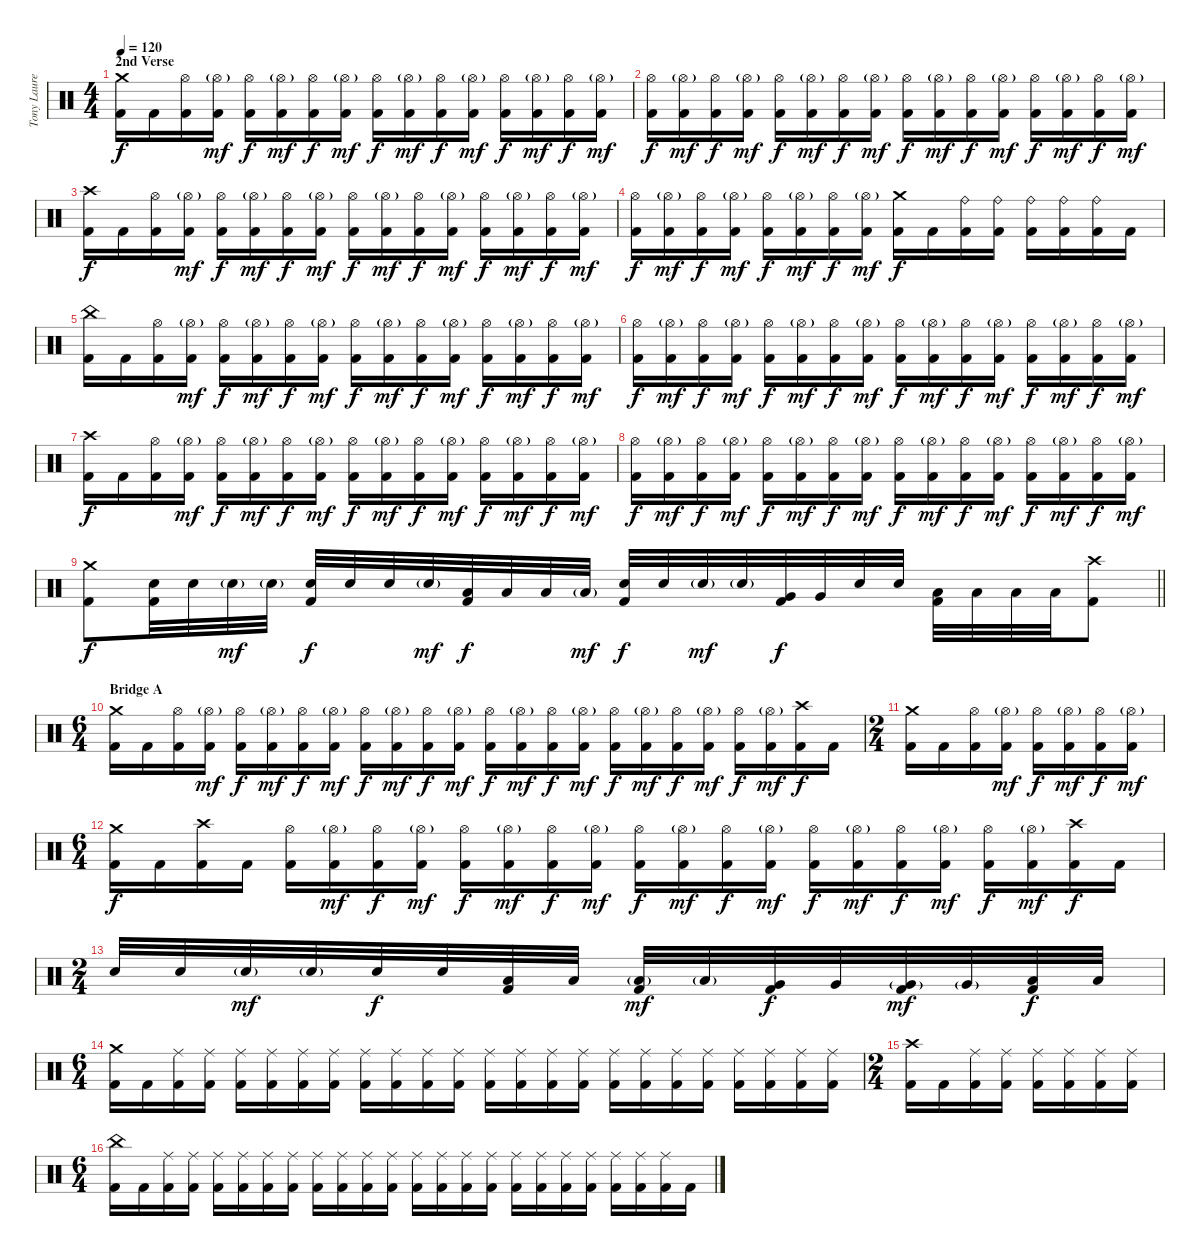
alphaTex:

\track ("Tony Laureano" "Tony Laure") {instrument percussion}
\staff {score}
\articulation defaults
\ts (4 4)
\section ("" "2nd Verse")
\tempo 120
\clef neutral
\ks c
("Crash medium (hit)" "Kick (hit) 2").16{dy f} "Kick (hit) 2".16 ("Hi-Hat (open)" "Kick (hit) 2").16 ("Hi-Hat (open)"{g} "Kick (hit) 2").16{dy mf} ("Hi-Hat (open)" "Kick (hit) 2").16{dy f} ("Hi-Hat (open)"{g} "Kick (hit) 2").16{dy mf} ("Hi-Hat (open)" "Kick (hit) 2").16{dy f} ("Hi-Hat (open)"{g} "Kick (hit) 2").16{dy mf} ("Hi-Hat (open)" "Kick (hit) 2").16{dy f} ("Hi-Hat (open)"{g} "Kick (hit) 2").16{dy mf} ("Hi-Hat (open)" "Kick (hit) 2").16{dy f} ("Hi-Hat (open)"{g} "Kick (hit) 2").16{dy mf} ("Hi-Hat (open)" "Kick (hit) 2").16{dy f} ("Hi-Hat (open)"{g} "Kick (hit) 2").16{dy mf} ("Hi-Hat (open)" "Kick (hit) 2").16{dy f} ("Hi-Hat (open)"{g} "Kick (hit) 2").16{dy mf} |
("Hi-Hat (open)" "Kick (hit) 2").16{dy f} ("Hi-Hat (open)"{g} "Kick (hit) 2").16{dy mf} ("Hi-Hat (open)" "Kick (hit) 2").16{dy f} ("Hi-Hat (open)"{g} "Kick (hit) 2").16{dy mf} ("Hi-Hat (open)" "Kick (hit) 2").16{dy f} ("Hi-Hat (open)"{g} "Kick (hit) 2").16{dy mf} ("Hi-Hat (open)" "Kick (hit) 2").16{dy f} ("Hi-Hat (open)"{g} "Kick (hit) 2").16{dy mf} ("Hi-Hat (open)" "Kick (hit) 2").16{dy f} ("Hi-Hat (open)"{g} "Kick (hit) 2").16{dy mf} ("Hi-Hat (open)" "Kick (hit) 2").16{dy f} ("Hi-Hat (open)"{g} "Kick (hit) 2").16{dy mf} ("Hi-Hat (open)" "Kick (hit) 2").16{dy f} ("Hi-Hat (open)"{g} "Kick (hit) 2").16{dy mf} ("Hi-Hat (open)" "Kick (hit) 2").16{dy f} ("Hi-Hat (open)"{g} "Kick (hit) 2").16{dy mf} |
("Crash high (hit)" "Kick (hit) 2").16{dy f} "Kick (hit) 2".16 ("Hi-Hat (open)" "Kick (hit) 2").16 ("Hi-Hat (open)"{g} "Kick (hit) 2").16{dy mf} ("Hi-Hat (open)" "Kick (hit) 2").16{dy f} ("Hi-Hat (open)"{g} "Kick (hit) 2").16{dy mf} ("Hi-Hat (open)" "Kick (hit) 2").16{dy f} ("Hi-Hat (open)"{g} "Kick (hit) 2").16{dy mf} ("Hi-Hat (open)" "Kick (hit) 2").16{dy f} ("Hi-Hat (open)"{g} "Kick (hit) 2").16{dy mf} ("Hi-Hat (open)" "Kick (hit) 2").16{dy f} ("Hi-Hat (open)"{g} "Kick (hit) 2").16{dy mf} ("Hi-Hat (open)" "Kick (hit) 2").16{dy f} ("Hi-Hat (open)"{g} "Kick (hit) 2").16{dy mf} ("Hi-Hat (open)" "Kick (hit) 2").16{dy f} ("Hi-Hat (open)"{g} "Kick (hit) 2").16{dy mf} |
("Hi-Hat (open)" "Kick (hit) 2").16{dy f} ("Hi-Hat (open)"{g} "Kick (hit) 2").16{dy mf} ("Hi-Hat (open)" "Kick (hit) 2").16{dy f} ("Hi-Hat (open)"{g} "Kick (hit) 2").16{dy mf} ("Hi-Hat (open)" "Kick (hit) 2").16{dy f} ("Hi-Hat (open)"{g} "Kick (hit) 2").16{dy mf} ("Hi-Hat (open)" "Kick (hit) 2").16{dy f} ("Hi-Hat (open)"{g} "Kick (hit) 2").16{dy mf} ("Crash medium (hit)" "Kick (hit) 2").16{dy f} "Kick (hit) 2".16 ("Ride (bell)" "Kick (hit) 2").16 ("Ride (bell)" "Kick (hit) 2").16 ("Ride (bell)" "Kick (hit) 2").16 ("Ride (bell)" "Kick (hit) 2").16 ("Ride (bell)" "Kick (hit) 2").16 "Kick (hit) 2".16 |
("China (hit)" "Kick (hit) 2").16 "Kick (hit) 2".16 ("Hi-Hat (open)" "Kick (hit) 2").16 ("Hi-Hat (open)"{g} "Kick (hit) 2").16{dy mf} ("Hi-Hat (open)" "Kick (hit) 2").16{dy f} ("Hi-Hat (open)"{g} "Kick (hit) 2").16{dy mf} ("Hi-Hat (open)" "Kick (hit) 2").16{dy f} ("Hi-Hat (open)"{g} "Kick (hit) 2").16{dy mf} ("Hi-Hat (open)" "Kick (hit) 2").16{dy f} ("Hi-Hat (open)"{g} "Kick (hit) 2").16{dy mf} ("Hi-Hat (open)" "Kick (hit) 2").16{dy f} ("Hi-Hat (open)"{g} "Kick (hit) 2").16{dy mf} ("Hi-Hat (open)" "Kick (hit) 2").16{dy f} ("Hi-Hat (open)"{g} "Kick (hit) 2").16{dy mf} ("Hi-Hat (open)" "Kick (hit) 2").16{dy f} ("Hi-Hat (open)"{g} "Kick (hit) 2").16{dy mf} |
("Hi-Hat (open)" "Kick (hit) 2").16{dy f} ("Hi-Hat (open)"{g} "Kick (hit) 2").16{dy mf} ("Hi-Hat (open)" "Kick (hit) 2").16{dy f} ("Hi-Hat (open)"{g} "Kick (hit) 2").16{dy mf} ("Hi-Hat (open)" "Kick (hit) 2").16{dy f} ("Hi-Hat (open)"{g} "Kick (hit) 2").16{dy mf} ("Hi-Hat (open)" "Kick (hit) 2").16{dy f} ("Hi-Hat (open)"{g} "Kick (hit) 2").16{dy mf} ("Hi-Hat (open)" "Kick (hit) 2").16{dy f} ("Hi-Hat (open)"{g} "Kick (hit) 2").16{dy mf} ("Hi-Hat (open)" "Kick (hit) 2").16{dy f} ("Hi-Hat (open)"{g} "Kick (hit) 2").16{dy mf} ("Hi-Hat (open)" "Kick (hit) 2").16{dy f} ("Hi-Hat (open)"{g} "Kick (hit) 2").16{dy mf} ("Hi-Hat (open)" "Kick (hit) 2").16{dy f} ("Hi-Hat (open)"{g} "Kick (hit) 2").16{dy mf} |
("Crash high (hit)" "Kick (hit) 2").16{dy f} "Kick (hit) 2".16 ("Hi-Hat (open)" "Kick (hit) 2").16 ("Hi-Hat (open)"{g} "Kick (hit) 2").16{dy mf} ("Hi-Hat (open)" "Kick (hit) 2").16{dy f} ("Hi-Hat (open)"{g} "Kick (hit) 2").16{dy mf} ("Hi-Hat (open)" "Kick (hit) 2").16{dy f} ("Hi-Hat (open)"{g} "Kick (hit) 2").16{dy mf} ("Hi-Hat (open)" "Kick (hit) 2").16{dy f} ("Hi-Hat (open)"{g} "Kick (hit) 2").16{dy mf} ("Hi-Hat (open)" "Kick (hit) 2").16{dy f} ("Hi-Hat (open)"{g} "Kick (hit) 2").16{dy mf} ("Hi-Hat (open)" "Kick (hit) 2").16{dy f} ("Hi-Hat (open)"{g} "Kick (hit) 2").16{dy mf} ("Hi-Hat (open)" "Kick (hit) 2").16{dy f} ("Hi-Hat (open)"{g} "Kick (hit) 2").16{dy mf} |
("Hi-Hat (open)" "Kick (hit) 2").16{dy f} ("Hi-Hat (open)"{g} "Kick (hit) 2").16{dy mf} ("Hi-Hat (open)" "Kick (hit) 2").16{dy f} ("Hi-Hat (open)"{g} "Kick (hit) 2").16{dy mf} ("Hi-Hat (open)" "Kick (hit) 2").16{dy f} ("Hi-Hat (open)"{g} "Kick (hit) 2").16{dy mf} ("Hi-Hat (open)" "Kick (hit) 2").16{dy f} ("Hi-Hat (open)"{g} "Kick (hit) 2").16{dy mf} ("Hi-Hat (open)" "Kick (hit) 2").16{dy f} ("Hi-Hat (open)"{g} "Kick (hit) 2").16{dy mf} ("Hi-Hat (open)" "Kick (hit) 2").16{dy f} ("Hi-Hat (open)"{g} "Kick (hit) 2").16{dy mf} ("Hi-Hat (open)" "Kick (hit) 2").16{dy f} ("Hi-Hat (open)"{g} "Kick (hit) 2").16{dy mf} ("Hi-Hat (open)" "Kick (hit) 2").16{dy f} ("Hi-Hat (open)"{g} "Kick (hit) 2").16{dy mf} |
\barLineRight lightlight
("Crash medium (hit)" "Kick (hit) 2").8{dy f} ("Electric Snare (hit)" "Kick (hit) 2").32 "Electric Snare (hit)".32 "Electric Snare (hit)"{g}.32{dy mf} "Electric Snare (hit)"{g}.32 ("Electric Snare (hit)" "Kick (hit) 2").32{dy f} "Electric Snare (hit)".32 "Electric Snare (hit)".32 "Electric Snare (hit)"{g}.32{dy mf} ("Low Tom (hit)" "Kick (hit) 2").32{dy f} "Low Tom (hit)".32 "Low Tom (hit)".32 "Low Tom (hit)"{g}.32{dy mf} ("Electric Snare (hit)" "Kick (hit) 2").32{dy f} "Electric Snare (hit)".32 "Electric Snare (hit)"{g}.32{dy mf} "Electric Snare (hit)"{g}.32 ("Very Low Tom (hit)" "Kick (hit) 2").32{dy f} "Very Low Tom (hit)".32 "Electric Snare (hit)".32 "Electric Snare (hit)".32 ("Low Floor Tom (hit)" "Kick (hit) 2").32 "Low Floor Tom (hit)".32 "Low Floor Tom (hit)".32 "Low Floor Tom (hit)".32 ("Crash high (hit)" "Kick (hit) 2").8 |
\ts (6 4)
\section ("" "Bridge A")
("Crash medium (hit)" "Kick (hit) 2").16 "Kick (hit) 2".16 ("Hi-Hat (open)" "Kick (hit) 2").16 ("Hi-Hat (open)"{g} "Kick (hit) 2").16{dy mf} ("Hi-Hat (open)" "Kick (hit) 2").16{dy f} ("Hi-Hat (open)"{g} "Kick (hit) 2").16{dy mf} ("Hi-Hat (open)" "Kick (hit) 2").16{dy f} ("Hi-Hat (open)"{g} "Kick (hit) 2").16{dy mf} ("Hi-Hat (open)" "Kick (hit) 2").16{dy f} ("Hi-Hat (open)"{g} "Kick (hit) 2").16{dy mf} ("Hi-Hat (open)" "Kick (hit) 2").16{dy f} ("Hi-Hat (open)"{g} "Kick (hit) 2").16{dy mf} ("Hi-Hat (open)" "Kick (hit) 2").16{dy f} ("Hi-Hat (open)"{g} "Kick (hit) 2").16{dy mf} ("Hi-Hat (open)" "Kick (hit) 2").16{dy f} ("Hi-Hat (open)"{g} "Kick (hit) 2").16{dy mf} ("Hi-Hat (open)" "Kick (hit) 2").16{dy f} ("Hi-Hat (open)"{g} "Kick (hit) 2").16{dy mf} ("Hi-Hat (open)" "Kick (hit) 2").16{dy f} ("Hi-Hat (open)"{g} "Kick (hit) 2").16{dy mf} ("Hi-Hat (open)" "Kick (hit) 2").16{dy f} ("Hi-Hat (open)"{g} "Kick (hit) 2").16{dy mf} ("Crash high (hit)" "Kick (hit) 2").16{dy f} "Kick (hit) 2".16 |
\ts (2 4)
("Crash medium (hit)" "Kick (hit) 2").16 "Kick (hit) 2".16 ("Hi-Hat (open)" "Kick (hit) 2").16 ("Hi-Hat (open)"{g} "Kick (hit) 2").16{dy mf} ("Hi-Hat (open)" "Kick (hit) 2").16{dy f} ("Hi-Hat (open)"{g} "Kick (hit) 2").16{dy mf} ("Hi-Hat (open)" "Kick (hit) 2").16{dy f} ("Hi-Hat (open)"{g} "Kick (hit) 2").16{dy mf} |
\ts (6 4)
("Crash medium (hit)" "Kick (hit) 2").16{dy f} "Kick (hit) 2".16 ("Crash high (hit)" "Kick (hit) 2").16 "Kick (hit) 2".16 ("Hi-Hat (open)" "Kick (hit) 2").16 ("Hi-Hat (open)"{g} "Kick (hit) 2").16{dy mf} ("Hi-Hat (open)" "Kick (hit) 2").16{dy f} ("Hi-Hat (open)"{g} "Kick (hit) 2").16{dy mf} ("Hi-Hat (open)" "Kick (hit) 2").16{dy f} ("Hi-Hat (open)"{g} "Kick (hit) 2").16{dy mf} ("Hi-Hat (open)" "Kick (hit) 2").16{dy f} ("Hi-Hat (open)"{g} "Kick (hit) 2").16{dy mf} ("Hi-Hat (open)" "Kick (hit) 2").16{dy f} ("Hi-Hat (open)"{g} "Kick (hit) 2").16{dy mf} ("Hi-Hat (open)" "Kick (hit) 2").16{dy f} ("Hi-Hat (open)"{g} "Kick (hit) 2").16{dy mf} ("Hi-Hat (open)" "Kick (hit) 2").16{dy f} ("Hi-Hat (open)"{g} "Kick (hit) 2").16{dy mf} ("Hi-Hat (open)" "Kick (hit) 2").16{dy f} ("Hi-Hat (open)"{g} "Kick (hit) 2").16{dy mf} ("Hi-Hat (open)" "Kick (hit) 2").16{dy f} ("Hi-Hat (open)"{g} "Kick (hit) 2").16{dy mf} ("Crash high (hit)" "Kick (hit) 2").16{dy f} "Kick (hit) 2".16 |
\ts (2 4)
"Electric Snare (hit)".32 "Electric Snare (hit)".32 "Electric Snare (hit)"{g}.32{dy mf} "Electric Snare (hit)"{g}.32 "Electric Snare (hit)".32{dy f} "Electric Snare (hit)".32 ("Low Tom (hit)" "Kick (hit) 2").32 "Low Tom (hit)".32 ("Low Tom (hit)"{g} "Kick (hit) 2").32{dy mf} "Low Tom (hit)"{g}.32 ("Very Low Tom (hit)" "Kick (hit) 2").32{dy f} "Very Low Tom (hit)".32 ("Very Low Tom (hit)"{g} "Kick (hit) 2").32{dy mf} "Very Low Tom (hit)"{g}.32 ("Low Floor Tom (hit)" "Kick (hit) 2").32{dy f} "Low Floor Tom (hit)".32 |
\ts (6 4)
("Crash medium (hit)" "Kick (hit) 2").16 "Kick (hit) 2".16 ("Ride (middle)" "Kick (hit) 2").16 ("Ride (middle)" "Kick (hit) 2").16 ("Ride (middle)" "Kick (hit) 2").16 ("Ride (middle)" "Kick (hit) 2").16 ("Ride (middle)" "Kick (hit) 2").16 ("Ride (middle)" "Kick (hit) 2").16 ("Ride (middle)" "Kick (hit) 2").16 ("Ride (middle)" "Kick (hit) 2").16 ("Ride (middle)" "Kick (hit) 2").16 ("Ride (middle)" "Kick (hit) 2").16 ("Ride (middle)" "Kick (hit) 2").16 ("Ride (middle)" "Kick (hit) 2").16 ("Ride (middle)" "Kick (hit) 2").16 ("Ride (middle)" "Kick (hit) 2").16 ("Ride (middle)" "Kick (hit) 2").16 ("Ride (middle)" "Kick (hit) 2").16 ("Ride (middle)" "Kick (hit) 2").16 ("Ride (middle)" "Kick (hit) 2").16 ("Ride (middle)" "Kick (hit) 2").16 ("Ride (middle)" "Kick (hit) 2").16 ("Ride (middle)" "Kick (hit) 2").16 ("Ride (middle)" "Kick (hit) 2").16 |
\ts (2 4)
("Crash high (hit)" "Kick (hit) 2").16 "Kick (hit) 2".16 ("Ride (middle)" "Kick (hit) 2").16 ("Ride (middle)" "Kick (hit) 2").16 ("Ride (middle)" "Kick (hit) 2").16 ("Ride (middle)" "Kick (hit) 2").16 ("Ride (middle)" "Kick (hit) 2").16 ("Ride (middle)" "Kick (hit) 2").16 |
\ts (6 4)
("China (hit)" "Kick (hit) 2").16 "Kick (hit) 2".16 ("Ride (middle)" "Kick (hit) 2").16 ("Ride (middle)" "Kick (hit) 2").16 ("Ride (middle)" "Kick (hit) 2").16 ("Ride (middle)" "Kick (hit) 2").16 ("Ride (middle)" "Kick (hit) 2").16 ("Ride (middle)" "Kick (hit) 2").16 ("Ride (middle)" "Kick (hit) 2").16 ("Ride (middle)" "Kick (hit) 2").16 ("Ride (middle)" "Kick (hit) 2").16 ("Ride (middle)" "Kick (hit) 2").16 ("Ride (middle)" "Kick (hit) 2").16 ("Ride (middle)" "Kick (hit) 2").16 ("Ride (middle)" "Kick (hit) 2").16 ("Ride (middle)" "Kick (hit) 2").16 ("Ride (middle)" "Kick (hit) 2").16 ("Ride (middle)" "Kick (hit) 2").16 ("Ride (middle)" "Kick (hit) 2").16 ("Ride (middle)" "Kick (hit) 2").16 ("Ride (middle)" "Kick (hit) 2").16 ("Ride (middle)" "Kick (hit) 2").16 ("Ride (middle)" "Kick (hit) 2").16 "Kick (hit) 2".16
